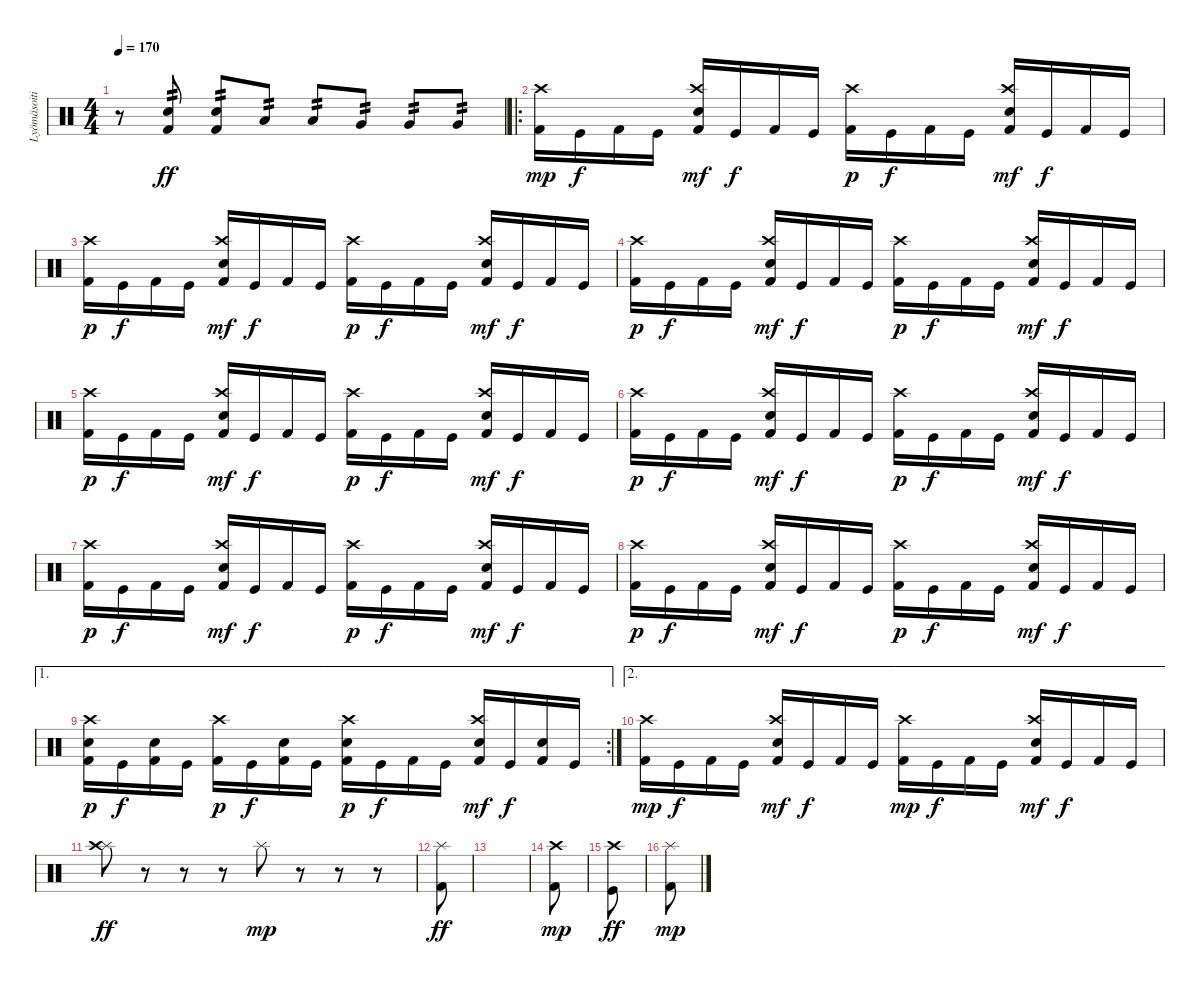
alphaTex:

\track ("Lyömäsoitin" "Lyömäsoiti") {instrument percussion}
\staff {score}
\articulation defaults
\ts (4 4)
\tempo 170
\clef neutral
\ks c
r.8{dy ff} ("Kick (hit) 2" "Electric Snare (hit)").8{tp 2} ("Kick (hit) 2" "Electric Snare (hit)").8{tp 2} "Low Floor Tom (hit)".8{tp 2} "Low Floor Tom (hit)".8{tp 2} "Very Low Tom (hit)".8{tp 2} "Very Low Tom (hit)".8{tp 2} "Very Low Tom (hit)".8{tp 2} |
\ro
("Kick (hit) 2" "Crash high (hit)").16{dy mp} "Kick (hit)".16{dy f} "Kick (hit) 2".16 "Kick (hit)".16 ("Kick (hit) 2" "Crash high (hit)" "Snare (hit) 2").16{dy mf} "Kick (hit)".16{dy f} "Kick (hit) 2".16 "Kick (hit)".16 ("Kick (hit) 2" "Crash high (hit)").16{dy p} "Kick (hit)".16{dy f} "Kick (hit) 2".16 "Kick (hit)".16 ("Kick (hit) 2" "Crash high (hit)" "Snare (hit) 2").16{dy mf} "Kick (hit)".16{dy f} "Kick (hit) 2".16 "Kick (hit)".16 |
("Kick (hit) 2" "Crash high (hit)").16{dy p} "Kick (hit)".16{dy f} "Kick (hit) 2".16 "Kick (hit)".16 ("Kick (hit) 2" "Crash high (hit)" "Snare (hit) 2").16{dy mf} "Kick (hit)".16{dy f} "Kick (hit) 2".16 "Kick (hit)".16 ("Kick (hit) 2" "Crash high (hit)").16{dy p} "Kick (hit)".16{dy f} "Kick (hit) 2".16 "Kick (hit)".16 ("Kick (hit) 2" "Crash high (hit)" "Snare (hit) 2").16{dy mf} "Kick (hit)".16{dy f} "Kick (hit) 2".16 "Kick (hit)".16 |
("Kick (hit) 2" "Crash high (hit)").16{dy p} "Kick (hit)".16{dy f} "Kick (hit) 2".16 "Kick (hit)".16 ("Kick (hit) 2" "Crash high (hit)" "Snare (hit) 2").16{dy mf} "Kick (hit)".16{dy f} "Kick (hit) 2".16 "Kick (hit)".16 ("Kick (hit) 2" "Crash high (hit)").16{dy p} "Kick (hit)".16{dy f} "Kick (hit) 2".16 "Kick (hit)".16 ("Kick (hit) 2" "Crash high (hit)" "Snare (hit) 2").16{dy mf} "Kick (hit)".16{dy f} "Kick (hit) 2".16 "Kick (hit)".16 |
("Kick (hit) 2" "Crash high (hit)").16{dy p} "Kick (hit)".16{dy f} "Kick (hit) 2".16 "Kick (hit)".16 ("Kick (hit) 2" "Crash high (hit)" "Snare (hit) 2").16{dy mf} "Kick (hit)".16{dy f} "Kick (hit) 2".16 "Kick (hit)".16 ("Kick (hit) 2" "Crash high (hit)").16{dy p} "Kick (hit)".16{dy f} "Kick (hit) 2".16 "Kick (hit)".16 ("Kick (hit) 2" "Crash high (hit)" "Snare (hit) 2").16{dy mf} "Kick (hit)".16{dy f} "Kick (hit) 2".16 "Kick (hit)".16 |
("Kick (hit) 2" "Crash high (hit)").16{dy p} "Kick (hit)".16{dy f} "Kick (hit) 2".16 "Kick (hit)".16 ("Kick (hit) 2" "Crash high (hit)" "Snare (hit) 2").16{dy mf} "Kick (hit)".16{dy f} "Kick (hit) 2".16 "Kick (hit)".16 ("Kick (hit) 2" "Crash high (hit)").16{dy p} "Kick (hit)".16{dy f} "Kick (hit) 2".16 "Kick (hit)".16 ("Kick (hit) 2" "Crash high (hit)" "Snare (hit) 2").16{dy mf} "Kick (hit)".16{dy f} "Kick (hit) 2".16 "Kick (hit)".16 |
("Kick (hit) 2" "Crash high (hit)").16{dy p} "Kick (hit)".16{dy f} "Kick (hit) 2".16 "Kick (hit)".16 ("Kick (hit) 2" "Crash high (hit)" "Snare (hit) 2").16{dy mf} "Kick (hit)".16{dy f} "Kick (hit) 2".16 "Kick (hit)".16 ("Kick (hit) 2" "Crash high (hit)").16{dy p} "Kick (hit)".16{dy f} "Kick (hit) 2".16 "Kick (hit)".16 ("Kick (hit) 2" "Crash high (hit)" "Snare (hit) 2").16{dy mf} "Kick (hit)".16{dy f} "Kick (hit) 2".16 "Kick (hit)".16 |
("Kick (hit) 2" "Crash high (hit)").16{dy p} "Kick (hit)".16{dy f} "Kick (hit) 2".16 "Kick (hit)".16 ("Kick (hit) 2" "Crash high (hit)" "Snare (hit) 2").16{dy mf} "Kick (hit)".16{dy f} "Kick (hit) 2".16 "Kick (hit)".16 ("Kick (hit) 2" "Crash high (hit)").16{dy p} "Kick (hit)".16{dy f} "Kick (hit) 2".16 "Kick (hit)".16 ("Kick (hit) 2" "Crash high (hit)" "Snare (hit) 2").16{dy mf} "Kick (hit)".16{dy f} "Kick (hit) 2".16 "Kick (hit)".16 |
\ae 1
\rc 2
("Kick (hit) 2" "Crash high (hit)" "Electric Snare (hit)").16{dy p} "Kick (hit)".16{dy f} ("Kick (hit) 2" "Electric Snare (hit)").16 "Kick (hit)".16 ("Kick (hit) 2" "Crash high (hit)").16{dy p} "Kick (hit)".16{dy f} ("Kick (hit) 2" "Electric Snare (hit)").16 "Kick (hit)".16 ("Kick (hit) 2" "Crash high (hit)" "Electric Snare (hit)").16{dy p} "Kick (hit)".16{dy f} "Kick (hit) 2".16 "Kick (hit)".16 ("Kick (hit) 2" "Crash high (hit)" "Snare (hit) 2").16{dy mf} "Kick (hit)".16{dy f} ("Kick (hit) 2" "Snare (hit) 2").16 "Kick (hit)".16 |
\ae 2
("Kick (hit) 2" "Crash high (hit)").16{dy mp} "Kick (hit)".16{dy f} "Kick (hit) 2".16 "Kick (hit)".16 ("Kick (hit) 2" "Crash high (hit)" "Snare (hit) 2").16{dy mf} "Kick (hit)".16{dy f} "Kick (hit) 2".16 "Kick (hit)".16 ("Kick (hit) 2" "Crash high (hit)").16{dy mp} "Kick (hit)".16{dy f} "Kick (hit) 2".16 "Kick (hit)".16 ("Kick (hit) 2" "Crash high (hit)" "Snare (hit) 2").16{dy mf} "Kick (hit)".16{dy f} "Kick (hit) 2".16 "Kick (hit)".16 |
("Splash (hit)" "Crash high (hit)").8{dy ff} r.8 r.8 r.8 "Splash (hit)".8{dy mp} r.8 r.8 r.8 |
("Kick (hit) 2" "Splash (hit)").8{dy ff} |
|
("Kick (hit) 2" "Crash high (hit)").8{dy mp} |
("Kick (hit)" "Crash high (hit)").8{dy ff} |
("Kick (hit) 2" "Splash (hit)").8{dy mp}
